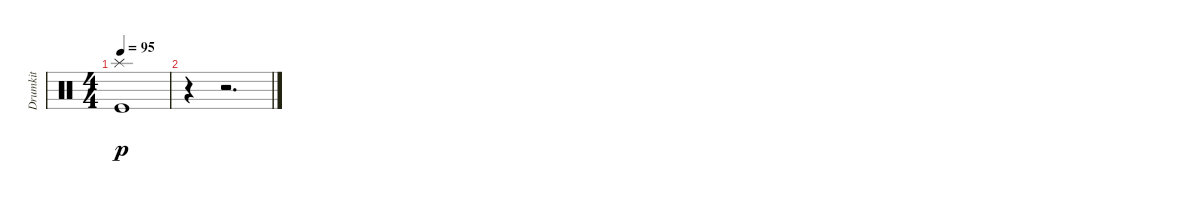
\track ("Drumkit" "Drumkit") {instrument percussion}
\staff {score}
\articulation defaults
\ts (4 4)
\tempo 95
\clef neutral
\ks c
("Splash (hit)"{t} "Kick (hit)"{t}).1{dy p} |
r.4 r.2{d}
